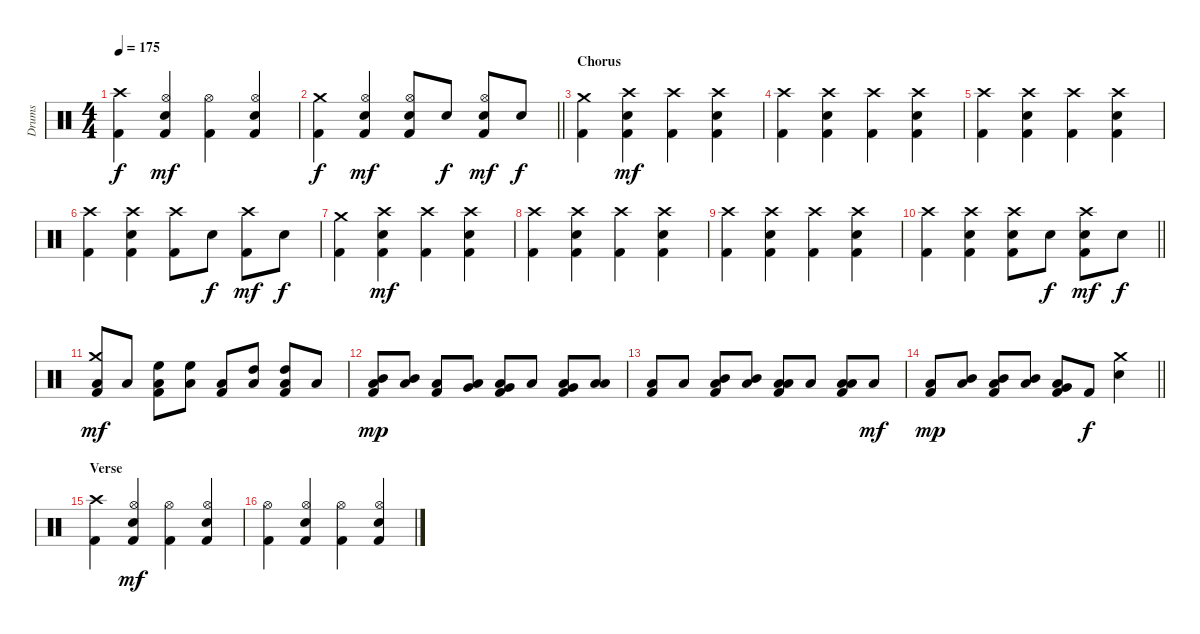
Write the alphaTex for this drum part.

\track ("Drums" "Drums") {instrument percussion}
\staff {score}
\articulation defaults
\ts (4 4)
\tempo 175
\clef neutral
\ks c
("Crash high (hit)" "Kick (hit) 2").4{dy f} ("Hi-Hat (open)" "Electric Snare (hit)" "Kick (hit) 2").4{dy mf} ("Hi-Hat (open)" "Kick (hit) 2").4 ("Hi-Hat (open)" "Electric Snare (hit)" "Kick (hit) 2").4 |
\barLineRight lightlight
("Crash medium (hit)" "Kick (hit) 2").4{dy f} ("Hi-Hat (open)" "Electric Snare (hit)" "Kick (hit) 2").4{dy mf} ("Hi-Hat (open)" "Electric Snare (hit)" "Kick (hit) 2").8 "Electric Snare (hit)".8{dy f} ("Hi-Hat (open)" "Electric Snare (hit)" "Kick (hit) 2").8{dy mf} "Electric Snare (hit)".8{dy f} |
\section ("" "Chorus")
("Crash medium (hit)" "Kick (hit) 2").4 ("Crash high (hit)" "Electric Snare (hit)" "Kick (hit) 2").4{dy mf} ("Crash high (hit)" "Kick (hit) 2").4 ("Crash high (hit)" "Electric Snare (hit)" "Kick (hit) 2").4 |
("Crash high (hit)" "Kick (hit) 2").4 ("Crash high (hit)" "Electric Snare (hit)" "Kick (hit) 2").4 ("Crash high (hit)" "Kick (hit) 2").4 ("Crash high (hit)" "Electric Snare (hit)" "Kick (hit) 2").4 |
("Crash high (hit)" "Kick (hit) 2").4 ("Crash high (hit)" "Electric Snare (hit)" "Kick (hit) 2").4 ("Crash high (hit)" "Kick (hit) 2").4 ("Crash high (hit)" "Electric Snare (hit)" "Kick (hit) 2").4 |
("Crash high (hit)" "Kick (hit) 2").4 ("Crash high (hit)" "Electric Snare (hit)" "Kick (hit) 2").4 ("Crash high (hit)" "Kick (hit) 2").8 "Electric Snare (hit)".8{dy f} ("Crash high (hit)" "Kick (hit) 2").8{dy mf} "Electric Snare (hit)".8{dy f} |
("Crash medium (hit)" "Kick (hit) 2").4 ("Crash high (hit)" "Electric Snare (hit)" "Kick (hit) 2").4{dy mf} ("Crash high (hit)" "Kick (hit) 2").4 ("Crash high (hit)" "Electric Snare (hit)" "Kick (hit) 2").4 |
("Crash high (hit)" "Kick (hit) 2").4 ("Crash high (hit)" "Electric Snare (hit)" "Kick (hit) 2").4 ("Crash high (hit)" "Kick (hit) 2").4 ("Crash high (hit)" "Electric Snare (hit)" "Kick (hit) 2").4 |
("Crash high (hit)" "Kick (hit) 2").4 ("Crash high (hit)" "Electric Snare (hit)" "Kick (hit) 2").4 ("Crash high (hit)" "Kick (hit) 2").4 ("Crash high (hit)" "Electric Snare (hit)" "Kick (hit) 2").4 |
\barLineRight lightlight
("Crash high (hit)" "Kick (hit) 2").4 ("Crash high (hit)" "Electric Snare (hit)" "Kick (hit) 2").4 ("Crash high (hit)" "Electric Snare (hit)" "Kick (hit) 2").8 "Electric Snare (hit)".8{dy f} ("Crash high (hit)" "Electric Snare (hit)" "Kick (hit) 2").8{dy mf} "Electric Snare (hit)".8{dy f} |
("Crash medium (hit)" "Low Tom (hit)" "Kick (hit) 2").8{dy mf} "Low Tom (hit)".8 ("High Floor Tom (hit)" "Low Tom (hit)" "Kick (hit) 2").8 ("High Floor Tom (hit)" "Low Tom (hit)").8 ("Low Tom (hit)" "Kick (hit) 2").8 ("High Tom (hit)" "Low Tom (hit)").8 ("High Tom (hit)" "Low Tom (hit)" "Kick (hit) 2").8 "Low Tom (hit)".8 |
("Mid Tom (hit)" "Low Tom (hit)" "Kick (hit) 2").8{dy mp} ("Mid Tom (hit)" "Low Tom (hit)").8 ("Low Tom (hit)" "Kick (hit) 2").8 ("Very Low Tom (hit)" "Low Tom (hit)").8 ("Very Low Tom (hit)" "Low Tom (hit)" "Kick (hit) 2").8 "Low Tom (hit)".8 ("Very Low Tom (hit)" "Low Tom (hit)" "Kick (hit) 2").8 ("Low Floor Tom (hit)" "Low Tom (hit)").8 |
("Low Tom (hit)" "Kick (hit) 2").8 "Low Tom (hit)".8 ("Mid Tom (hit)" "Low Tom (hit)" "Kick (hit) 2").8 ("Mid Tom (hit)" "Low Tom (hit)").8 ("Low Floor Tom (hit)" "Low Tom (hit)" "Kick (hit) 2").8 "Low Tom (hit)".8 ("Low Floor Tom (hit)" "Low Tom (hit)" "Kick (hit) 2").8 "Low Tom (hit)".8{dy mf} |
\barLineRight lightlight
("Low Tom (hit)" "Kick (hit) 2").8{dy mp} ("Mid Tom (hit)" "Low Tom (hit)").8 ("Mid Tom (hit)" "Low Tom (hit)" "Kick (hit) 2").8 ("Mid Tom (hit)" "Low Tom (hit)").8 ("Very Low Tom (hit)" "Low Tom (hit)" "Kick (hit) 2").8 "Kick (hit) 2".8{dy f} ("Crash medium (hit)" "Electric Snare (hit)").4 |
\section ("" "Verse")
("Crash high (hit)" "Kick (hit) 2").4 ("Hi-Hat (open)" "Electric Snare (hit)" "Kick (hit) 2").4{dy mf} ("Hi-Hat (open)" "Kick (hit) 2").4 ("Hi-Hat (open)" "Electric Snare (hit)" "Kick (hit) 2").4 |
("Hi-Hat (open)" "Kick (hit) 2").4 ("Hi-Hat (open)" "Electric Snare (hit)" "Kick (hit) 2").4 ("Hi-Hat (open)" "Kick (hit) 2").4 ("Hi-Hat (open)" "Electric Snare (hit)" "Kick (hit) 2").4
